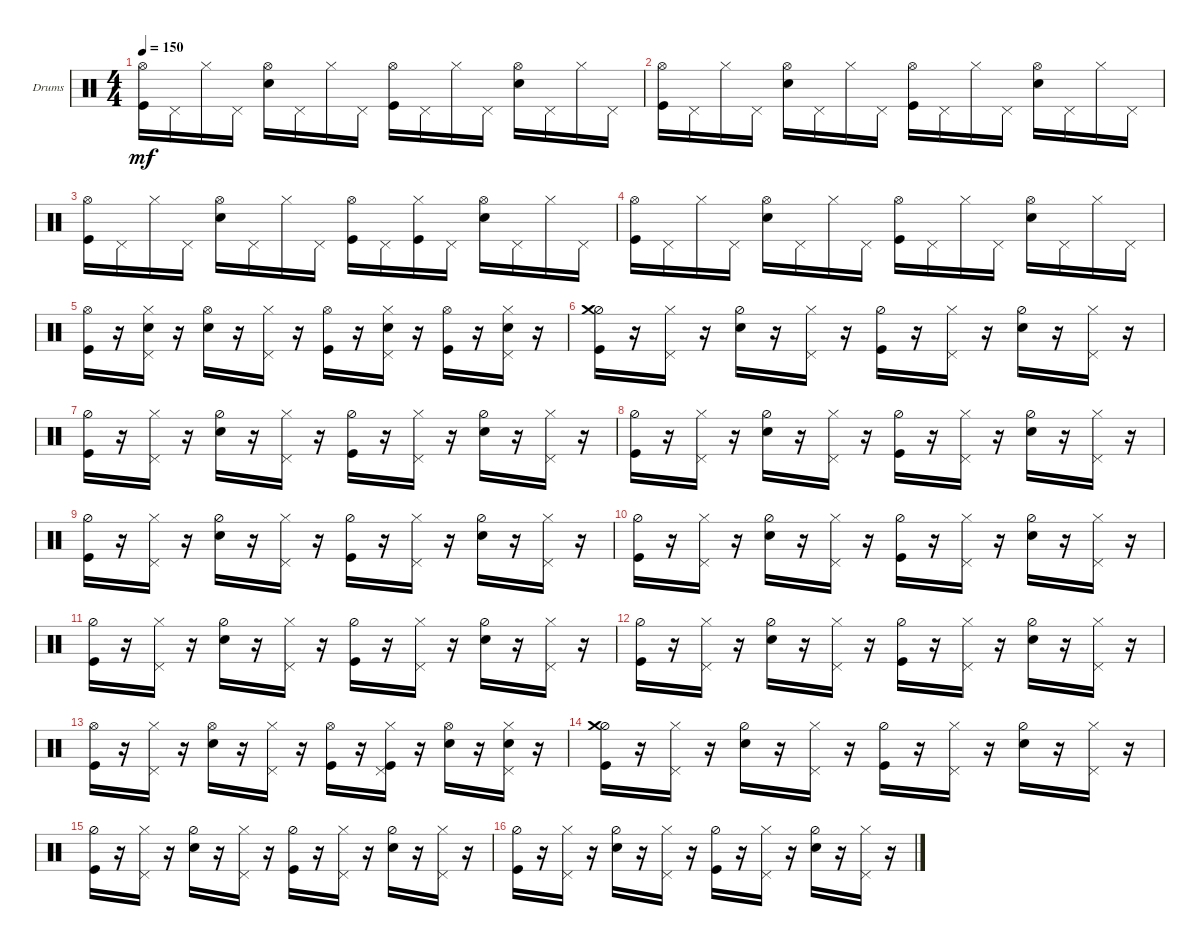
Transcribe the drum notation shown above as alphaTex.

\bracketExtendMode groupsimilarinstruments
\firstSystemTrackNameOrientation horizontal
\otherSystemsTrackNameOrientation horizontal
\track ("Drumkit" "Drums") {solo instrument percussion}
\staff {score}
\articulation defaults
\ts (4 4)
\tempo 150
\clef neutral
\ks c
("Kick (hit)" "Hi-Hat (open)").16{dy mf} "Pedal Hi-Hat (hit)".16 "Hi-Hat (closed)".16 "Pedal Hi-Hat (hit)".16 ("Snare (hit) 2" "Hi-Hat (open)").16 "Pedal Hi-Hat (hit)".16 "Hi-Hat (closed)".16 "Pedal Hi-Hat (hit)".16 ("Kick (hit)" "Hi-Hat (open)").16 "Pedal Hi-Hat (hit)".16 "Hi-Hat (closed)".16 "Pedal Hi-Hat (hit)".16 ("Snare (hit) 2" "Hi-Hat (open)").16 "Pedal Hi-Hat (hit)".16 "Hi-Hat (closed)".16 "Pedal Hi-Hat (hit)".16 |
("Kick (hit)" "Hi-Hat (open)").16 "Pedal Hi-Hat (hit)".16 "Hi-Hat (closed)".16 "Pedal Hi-Hat (hit)".16 ("Snare (hit) 2" "Hi-Hat (open)").16 "Pedal Hi-Hat (hit)".16 "Hi-Hat (closed)".16 "Pedal Hi-Hat (hit)".16 ("Kick (hit)" "Hi-Hat (open)").16 "Pedal Hi-Hat (hit)".16 "Hi-Hat (closed)".16 "Pedal Hi-Hat (hit)".16 ("Snare (hit) 2" "Hi-Hat (open)").16 "Pedal Hi-Hat (hit)".16 "Hi-Hat (closed)".16 "Pedal Hi-Hat (hit)".16 |
("Kick (hit)" "Hi-Hat (open)").16 "Pedal Hi-Hat (hit)".16 "Hi-Hat (closed)".16 "Pedal Hi-Hat (hit)".16 ("Snare (hit) 2" "Hi-Hat (open)").16 "Pedal Hi-Hat (hit)".16 "Hi-Hat (closed)".16 "Pedal Hi-Hat (hit)".16 ("Kick (hit)" "Hi-Hat (open)").16 "Pedal Hi-Hat (hit)".16 ("Hi-Hat (closed)" "Kick (hit)").16 "Pedal Hi-Hat (hit)".16 ("Snare (hit) 2" "Hi-Hat (open)").16 "Pedal Hi-Hat (hit)".16 "Hi-Hat (closed)".16 "Pedal Hi-Hat (hit)".16 |
("Kick (hit)" "Hi-Hat (open)").16 "Pedal Hi-Hat (hit)".16 "Hi-Hat (closed)".16 "Pedal Hi-Hat (hit)".16 ("Snare (hit) 2" "Hi-Hat (open)").16 "Pedal Hi-Hat (hit)".16 "Hi-Hat (closed)".16 "Pedal Hi-Hat (hit)".16 ("Kick (hit)" "Hi-Hat (open)").16 "Pedal Hi-Hat (hit)".16 "Hi-Hat (closed)".16 "Pedal Hi-Hat (hit)".16 ("Snare (hit) 2" "Hi-Hat (open)").16 "Pedal Hi-Hat (hit)".16 "Hi-Hat (closed)".16 "Pedal Hi-Hat (hit)".16 |
("Kick (hit)" "Hi-Hat (open)").16 r.16 ("Hi-Hat (closed)" "Snare (hit) 2" "Pedal Hi-Hat (hit)").16 r.16 ("Snare (hit) 2" "Hi-Hat (open)").16 r.16 ("Hi-Hat (closed)" "Pedal Hi-Hat (hit)").16 r.16 ("Kick (hit)" "Hi-Hat (open)").16 r.16 ("Hi-Hat (closed)" "Snare (hit) 2" "Pedal Hi-Hat (hit)").16 r.16 ("Hi-Hat (open)" "Kick (hit)").16 r.16 ("Hi-Hat (closed)" "Snare (hit) 2" "Pedal Hi-Hat (hit)").16 r.16 |
("Kick (hit)" "Hi-Hat (half)" "Crash medium (hit)").16 r.16 ("Pedal Hi-Hat (hit)" "Hi-Hat (closed)").16 r.16 ("Snare (hit) 2" "Hi-Hat (half)").16 r.16 ("Pedal Hi-Hat (hit)" "Hi-Hat (closed)").16 r.16 ("Kick (hit)" "Hi-Hat (half)").16 r.16 ("Hi-Hat (closed)" "Pedal Hi-Hat (hit)").16 r.16 ("Snare (hit) 2" "Hi-Hat (half)").16 r.16 ("Hi-Hat (closed)" "Pedal Hi-Hat (hit)").16 r.16 |
("Kick (hit)" "Hi-Hat (half)").16 r.16 ("Hi-Hat (closed)" "Pedal Hi-Hat (hit)").16 r.16 ("Snare (hit) 2" "Hi-Hat (half)").16 r.16 ("Hi-Hat (closed)" "Pedal Hi-Hat (hit)").16 r.16 ("Kick (hit)" "Hi-Hat (half)").16 r.16 ("Hi-Hat (closed)" "Pedal Hi-Hat (hit)").16 r.16 ("Snare (hit) 2" "Hi-Hat (half)").16 r.16 ("Hi-Hat (closed)" "Pedal Hi-Hat (hit)").16 r.16 |
("Kick (hit)" "Hi-Hat (half)").16 r.16 ("Hi-Hat (closed)" "Pedal Hi-Hat (hit)").16 r.16 ("Snare (hit) 2" "Hi-Hat (half)").16 r.16 ("Hi-Hat (closed)" "Pedal Hi-Hat (hit)").16 r.16 ("Kick (hit)" "Hi-Hat (half)").16 r.16 ("Hi-Hat (closed)" "Pedal Hi-Hat (hit)").16 r.16 ("Snare (hit) 2" "Hi-Hat (half)").16 r.16 ("Hi-Hat (closed)" "Pedal Hi-Hat (hit)").16 r.16 |
("Kick (hit)" "Hi-Hat (half)").16 r.16 ("Hi-Hat (closed)" "Pedal Hi-Hat (hit)").16 r.16 ("Snare (hit) 2" "Hi-Hat (half)").16 r.16 ("Hi-Hat (closed)" "Pedal Hi-Hat (hit)").16 r.16 ("Kick (hit)" "Hi-Hat (half)").16 r.16 ("Hi-Hat (closed)" "Pedal Hi-Hat (hit)").16 r.16 ("Snare (hit) 2" "Hi-Hat (half)").16 r.16 ("Hi-Hat (closed)" "Pedal Hi-Hat (hit)").16 r.16 |
("Kick (hit)" "Hi-Hat (half)").16 r.16 ("Hi-Hat (closed)" "Pedal Hi-Hat (hit)").16 r.16 ("Snare (hit) 2" "Hi-Hat (half)").16 r.16 ("Hi-Hat (closed)" "Pedal Hi-Hat (hit)").16 r.16 ("Kick (hit)" "Hi-Hat (half)").16 r.16 ("Hi-Hat (closed)" "Pedal Hi-Hat (hit)").16 r.16 ("Snare (hit) 2" "Hi-Hat (half)").16 r.16 ("Hi-Hat (closed)" "Pedal Hi-Hat (hit)").16 r.16 |
("Kick (hit)" "Hi-Hat (half)").16 r.16 ("Hi-Hat (closed)" "Pedal Hi-Hat (hit)").16 r.16 ("Snare (hit) 2" "Hi-Hat (half)").16 r.16 ("Hi-Hat (closed)" "Pedal Hi-Hat (hit)").16 r.16 ("Kick (hit)" "Hi-Hat (half)").16 r.16 ("Hi-Hat (closed)" "Pedal Hi-Hat (hit)").16 r.16 ("Snare (hit) 2" "Hi-Hat (half)").16 r.16 ("Hi-Hat (closed)" "Pedal Hi-Hat (hit)").16 r.16 |
("Kick (hit)" "Hi-Hat (half)").16 r.16 ("Hi-Hat (closed)" "Pedal Hi-Hat (hit)").16 r.16 ("Snare (hit) 2" "Hi-Hat (half)").16 r.16 ("Hi-Hat (closed)" "Pedal Hi-Hat (hit)").16 r.16 ("Kick (hit)" "Hi-Hat (half)").16 r.16 ("Hi-Hat (closed)" "Pedal Hi-Hat (hit)").16 r.16 ("Snare (hit) 2" "Hi-Hat (half)").16 r.16 ("Hi-Hat (closed)" "Pedal Hi-Hat (hit)").16 r.16 |
("Kick (hit)" "Hi-Hat (open)").16 r.16 ("Hi-Hat (closed)" "Pedal Hi-Hat (hit)").16 r.16 ("Snare (hit) 2" "Hi-Hat (open)").16 r.16 ("Hi-Hat (closed)" "Pedal Hi-Hat (hit)").16 r.16 ("Kick (hit)" "Hi-Hat (open)").16 r.16 ("Hi-Hat (closed)" "Kick (hit)" "Pedal Hi-Hat (hit)").16 r.16 ("Snare (hit) 2" "Hi-Hat (open)").16 r.16 ("Hi-Hat (closed)" "Snare (hit) 2" "Pedal Hi-Hat (hit)").16 r.16 |
("Kick (hit)" "Hi-Hat (half)" "Crash medium (hit)").16 r.16 ("Pedal Hi-Hat (hit)" "Hi-Hat (closed)").16 r.16 ("Snare (hit) 2" "Hi-Hat (half)").16 r.16 ("Pedal Hi-Hat (hit)" "Hi-Hat (closed)").16 r.16 ("Kick (hit)" "Hi-Hat (half)").16 r.16 ("Hi-Hat (closed)" "Pedal Hi-Hat (hit)").16 r.16 ("Snare (hit) 2" "Hi-Hat (half)").16 r.16 ("Hi-Hat (closed)" "Pedal Hi-Hat (hit)").16 r.16 |
("Kick (hit)" "Hi-Hat (half)").16 r.16 ("Hi-Hat (closed)" "Pedal Hi-Hat (hit)").16 r.16 ("Snare (hit) 2" "Hi-Hat (half)").16 r.16 ("Hi-Hat (closed)" "Pedal Hi-Hat (hit)").16 r.16 ("Kick (hit)" "Hi-Hat (half)").16 r.16 ("Hi-Hat (closed)" "Pedal Hi-Hat (hit)").16 r.16 ("Snare (hit) 2" "Hi-Hat (half)").16 r.16 ("Hi-Hat (closed)" "Pedal Hi-Hat (hit)").16 r.16 |
("Kick (hit)" "Hi-Hat (half)").16 r.16 ("Hi-Hat (closed)" "Pedal Hi-Hat (hit)").16 r.16 ("Snare (hit) 2" "Hi-Hat (half)").16 r.16 ("Hi-Hat (closed)" "Pedal Hi-Hat (hit)").16 r.16 ("Kick (hit)" "Hi-Hat (half)").16 r.16 ("Hi-Hat (closed)" "Pedal Hi-Hat (hit)").16 r.16 ("Snare (hit) 2" "Hi-Hat (half)").16 r.16 ("Hi-Hat (closed)" "Pedal Hi-Hat (hit)").16 r.16
